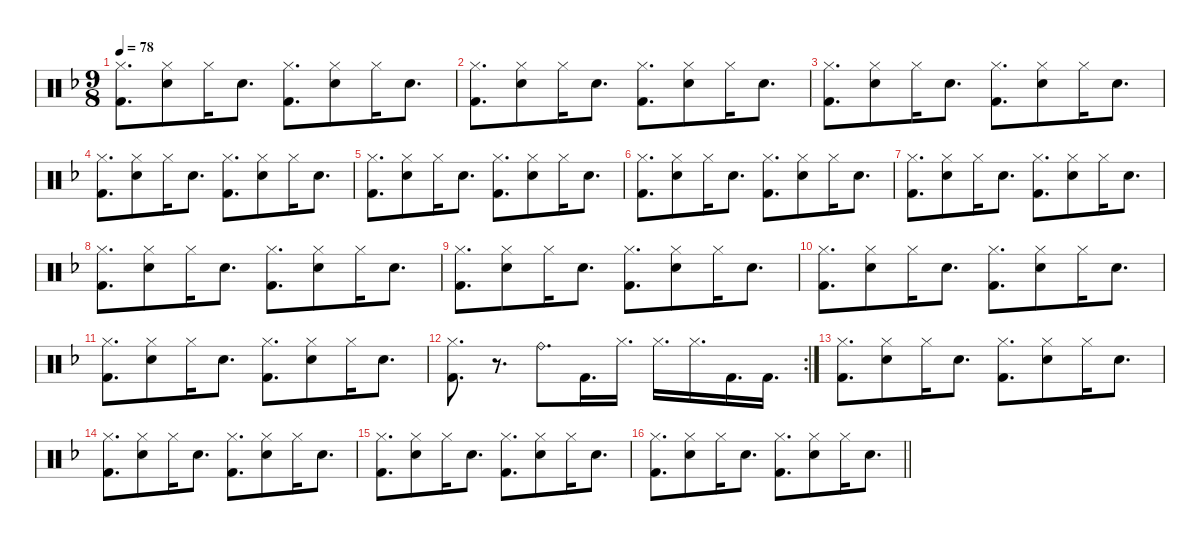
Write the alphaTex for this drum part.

\defaultSystemsLayout 4
\hideDynamics
\bracketExtendMode nobrackets
\singleTrackTrackNamePolicy hidden
\multiTrackTrackNamePolicy hidden
\firstSystemTrackNameMode fullname
\firstSystemTrackNameOrientation horizontal
\otherSystemsTrackNameOrientation horizontal
\track ("Percussion" "drm.") {instrument percussion}
\staff {score}
\articulation defaults
\ts (9 8)
\tempo 78
\clef neutral
\ks f
("Hi-Hat (closed)"{acc forcenatural} "Kick (hit) 2"{acc forcenatural}).8{d dy ff beam Down} ("Hi-Hat (closed)"{acc forcenatural} "Snare (hit) 2"{acc forcenatural}).8{dy mf beam Down} "Hi-Hat (closed)"{acc forcenatural}.16{dy f beam Down beam merge} "Snare (hit) 2"{acc forcenatural}.8{d dy mf beam Down beam split} ("Hi-Hat (closed)"{acc forcenatural} "Kick (hit) 2"{acc forcenatural}).8{d dy ff beam Down beam merge} ("Hi-Hat (closed)"{acc forcenatural} "Snare (hit) 2"{acc forcenatural}).8{dy mf beam Down} "Hi-Hat (closed)"{acc forcenatural}.16{dy f beam Down} "Snare (hit) 2"{acc forcenatural}.8{d dy mf beam Down} |
("Hi-Hat (closed)"{acc forcenatural} "Kick (hit) 2"{acc forcenatural}).8{d dy ff beam Down} ("Hi-Hat (closed)"{acc forcenatural} "Snare (hit) 2"{acc forcenatural}).8{dy mf beam Down} "Hi-Hat (closed)"{acc forcenatural}.16{dy f beam Down beam merge} "Snare (hit) 2"{acc forcenatural}.8{d dy mf beam Down beam split} ("Hi-Hat (closed)"{acc forcenatural} "Kick (hit) 2"{acc forcenatural}).8{d dy ff beam Down beam merge} ("Hi-Hat (closed)"{acc forcenatural} "Snare (hit) 2"{acc forcenatural}).8{dy mf beam Down} "Hi-Hat (closed)"{acc forcenatural}.16{dy f beam Down} "Snare (hit) 2"{acc forcenatural}.8{d dy mf beam Down} |
("Hi-Hat (closed)"{acc forcenatural} "Kick (hit) 2"{acc forcenatural}).8{d dy ff beam Down} ("Hi-Hat (closed)"{acc forcenatural} "Snare (hit) 2"{acc forcenatural}).8{dy mf beam Down} "Hi-Hat (closed)"{acc forcenatural}.16{dy f beam Down beam merge} "Snare (hit) 2"{acc forcenatural}.8{d dy mf beam Down beam split} ("Hi-Hat (closed)"{acc forcenatural} "Kick (hit) 2"{acc forcenatural}).8{d dy ff beam Down beam merge} ("Hi-Hat (closed)"{acc forcenatural} "Snare (hit) 2"{acc forcenatural}).8{dy mf beam Down} "Hi-Hat (closed)"{acc forcenatural}.16{dy f beam Down} "Snare (hit) 2"{acc forcenatural}.8{d dy mf beam Down} |
("Hi-Hat (closed)"{acc forcenatural} "Kick (hit) 2"{acc forcenatural}).8{d dy ff beam Down} ("Hi-Hat (closed)"{acc forcenatural} "Snare (hit) 2"{acc forcenatural}).8{dy mf beam Down} "Hi-Hat (closed)"{acc forcenatural}.16{dy f beam Down beam merge} "Snare (hit) 2"{acc forcenatural}.8{d dy mf beam Down beam split} ("Hi-Hat (closed)"{acc forcenatural} "Kick (hit) 2"{acc forcenatural}).8{d dy ff beam Down beam merge} ("Hi-Hat (closed)"{acc forcenatural} "Snare (hit) 2"{acc forcenatural}).8{dy mf beam Down} "Hi-Hat (closed)"{acc forcenatural}.16{dy f beam Down} "Snare (hit) 2"{acc forcenatural}.8{d dy mf beam Down} |
("Hi-Hat (closed)"{acc forcenatural} "Kick (hit) 2"{acc forcenatural}).8{d dy ff beam Down} ("Hi-Hat (closed)"{acc forcenatural} "Snare (hit) 2"{acc forcenatural}).8{dy mf beam Down} "Hi-Hat (closed)"{acc forcenatural}.16{dy f beam Down beam merge} "Snare (hit) 2"{acc forcenatural}.8{d dy mf beam Down beam split} ("Hi-Hat (closed)"{acc forcenatural} "Kick (hit) 2"{acc forcenatural}).8{d dy ff beam Down beam merge} ("Hi-Hat (closed)"{acc forcenatural} "Snare (hit) 2"{acc forcenatural}).8{dy mf beam Down} "Hi-Hat (closed)"{acc forcenatural}.16{dy f beam Down} "Snare (hit) 2"{acc forcenatural}.8{d dy mf beam Down} |
("Hi-Hat (closed)"{acc forcenatural} "Kick (hit) 2"{acc forcenatural}).8{d dy ff beam Down} ("Hi-Hat (closed)"{acc forcenatural} "Snare (hit) 2"{acc forcenatural}).8{dy mf beam Down} "Hi-Hat (closed)"{acc forcenatural}.16{dy f beam Down beam merge} "Snare (hit) 2"{acc forcenatural}.8{d dy mf beam Down beam split} ("Hi-Hat (closed)"{acc forcenatural} "Kick (hit) 2"{acc forcenatural}).8{d dy ff beam Down beam merge} ("Hi-Hat (closed)"{acc forcenatural} "Snare (hit) 2"{acc forcenatural}).8{dy mf beam Down} "Hi-Hat (closed)"{acc forcenatural}.16{dy f beam Down} "Snare (hit) 2"{acc forcenatural}.8{d dy mf beam Down} |
("Hi-Hat (closed)"{acc forcenatural} "Kick (hit) 2"{acc forcenatural}).8{d dy ff beam Down} ("Hi-Hat (closed)"{acc forcenatural} "Snare (hit) 2"{acc forcenatural}).8{dy mf beam Down} "Hi-Hat (closed)"{acc forcenatural}.16{dy f beam Down beam merge} "Snare (hit) 2"{acc forcenatural}.8{d dy mf beam Down beam split} ("Hi-Hat (closed)"{acc forcenatural} "Kick (hit) 2"{acc forcenatural}).8{d dy ff beam Down beam merge} ("Hi-Hat (closed)"{acc forcenatural} "Snare (hit) 2"{acc forcenatural}).8{dy mf beam Down} "Hi-Hat (closed)"{acc forcenatural}.16{dy f beam Down} "Snare (hit) 2"{acc forcenatural}.8{d dy mf beam Down} |
("Hi-Hat (closed)"{acc forcenatural} "Kick (hit) 2"{acc forcenatural}).8{d dy ff beam Down} ("Hi-Hat (closed)"{acc forcenatural} "Snare (hit) 2"{acc forcenatural}).8{dy mf beam Down} "Hi-Hat (closed)"{acc forcenatural}.16{dy f beam Down beam merge} "Snare (hit) 2"{acc forcenatural}.8{d dy mf beam Down beam split} ("Hi-Hat (closed)"{acc forcenatural} "Kick (hit) 2"{acc forcenatural}).8{d dy ff beam Down beam merge} ("Hi-Hat (closed)"{acc forcenatural} "Snare (hit) 2"{acc forcenatural}).8{dy mf beam Down} "Hi-Hat (closed)"{acc forcenatural}.16{dy f beam Down} "Snare (hit) 2"{acc forcenatural}.8{d dy mf beam Down} |
("Hi-Hat (closed)"{acc forcenatural} "Kick (hit) 2"{acc forcenatural}).8{d dy ff beam Down} ("Hi-Hat (closed)"{acc forcenatural} "Snare (hit) 2"{acc forcenatural}).8{dy mf beam Down} "Hi-Hat (closed)"{acc forcenatural}.16{dy f beam Down beam merge} "Snare (hit) 2"{acc forcenatural}.8{d dy mf beam Down beam split} ("Hi-Hat (closed)"{acc forcenatural} "Kick (hit) 2"{acc forcenatural}).8{d dy ff beam Down beam merge} ("Hi-Hat (closed)"{acc forcenatural} "Snare (hit) 2"{acc forcenatural}).8{dy mf beam Down} "Hi-Hat (closed)"{acc forcenatural}.16{dy f beam Down} "Snare (hit) 2"{acc forcenatural}.8{d dy mf beam Down} |
("Hi-Hat (closed)"{acc forcenatural} "Kick (hit) 2"{acc forcenatural}).8{d dy ff beam Down} ("Hi-Hat (closed)"{acc forcenatural} "Snare (hit) 2"{acc forcenatural}).8{dy mf beam Down} "Hi-Hat (closed)"{acc forcenatural}.16{dy f beam Down beam merge} "Snare (hit) 2"{acc forcenatural}.8{d dy mf beam Down beam split} ("Hi-Hat (closed)"{acc forcenatural} "Kick (hit) 2"{acc forcenatural}).8{d dy ff beam Down beam merge} ("Hi-Hat (closed)"{acc forcenatural} "Snare (hit) 2"{acc forcenatural}).8{dy mf beam Down} "Hi-Hat (closed)"{acc forcenatural}.16{dy f beam Down} "Snare (hit) 2"{acc forcenatural}.8{d dy mf beam Down} |
("Hi-Hat (closed)"{acc forcenatural} "Kick (hit) 2"{acc forcenatural}).8{d dy ff beam Down} ("Hi-Hat (closed)"{acc forcenatural} "Snare (hit) 2"{acc forcenatural}).8{dy mf beam Down} "Hi-Hat (closed)"{acc forcenatural}.16{dy f beam Down beam merge} "Snare (hit) 2"{acc forcenatural}.8{d dy mf beam Down beam split} ("Hi-Hat (closed)"{acc forcenatural} "Kick (hit) 2"{acc forcenatural}).8{d dy ff beam Down beam merge} ("Hi-Hat (closed)"{acc forcenatural} "Snare (hit) 2"{acc forcenatural}).8{dy mf beam Down} "Hi-Hat (closed)"{acc forcenatural}.16{dy f beam Down} "Snare (hit) 2"{acc forcenatural}.8{d dy mf beam Down} |
\rc 2
("Hi-Hat (closed)"{acc forcenatural} "Kick (hit) 2"{acc forcenatural}).8{d dy f beam Down} r.8{d beam Down} "Ride (bell)"{acc forcenatural}.8{d beam Down} "Kick (hit) 2"{acc forcenatural}.16{d beam Down} "Hi-Hat (closed)"{acc forcenatural}.16{d beam Down} "Hi-Hat (closed)"{acc forcenatural}.16{d beam Down} "Hi-Hat (closed)"{acc forcenatural}.16{d beam Down} "Kick (hit) 2"{acc forcenatural}.16{d beam Down} "Kick (hit) 2"{acc forcenatural}.16{d beam Down} |
("Hi-Hat (closed)"{acc forcenatural} "Kick (hit) 2"{acc forcenatural}).8{d dy ff beam Down} ("Hi-Hat (closed)"{acc forcenatural} "Snare (hit) 2"{acc forcenatural}).8{dy mf beam Down} "Hi-Hat (closed)"{acc forcenatural}.16{dy f beam Down beam merge} "Snare (hit) 2"{acc forcenatural}.8{d dy mf beam Down beam split} ("Hi-Hat (closed)"{acc forcenatural} "Kick (hit) 2"{acc forcenatural}).8{d dy ff beam Down beam merge} ("Hi-Hat (closed)"{acc forcenatural} "Snare (hit) 2"{acc forcenatural}).8{dy mf beam Down} "Hi-Hat (closed)"{acc forcenatural}.16{dy f beam Down} "Snare (hit) 2"{acc forcenatural}.8{d dy mf beam Down} |
("Hi-Hat (closed)"{acc forcenatural} "Kick (hit) 2"{acc forcenatural}).8{d dy ff beam Down} ("Hi-Hat (closed)"{acc forcenatural} "Snare (hit) 2"{acc forcenatural}).8{dy mf beam Down} "Hi-Hat (closed)"{acc forcenatural}.16{dy f beam Down beam merge} "Snare (hit) 2"{acc forcenatural}.8{d dy mf beam Down beam split} ("Hi-Hat (closed)"{acc forcenatural} "Kick (hit) 2"{acc forcenatural}).8{d dy ff beam Down beam merge} ("Hi-Hat (closed)"{acc forcenatural} "Snare (hit) 2"{acc forcenatural}).8{dy mf beam Down} "Hi-Hat (closed)"{acc forcenatural}.16{dy f beam Down} "Snare (hit) 2"{acc forcenatural}.8{d dy mf beam Down} |
("Hi-Hat (closed)"{acc forcenatural} "Kick (hit) 2"{acc forcenatural}).8{d dy ff beam Down} ("Hi-Hat (closed)"{acc forcenatural} "Snare (hit) 2"{acc forcenatural}).8{dy mf beam Down} "Hi-Hat (closed)"{acc forcenatural}.16{dy f beam Down beam merge} "Snare (hit) 2"{acc forcenatural}.8{d dy mf beam Down beam split} ("Hi-Hat (closed)"{acc forcenatural} "Kick (hit) 2"{acc forcenatural}).8{d dy ff beam Down beam merge} ("Hi-Hat (closed)"{acc forcenatural} "Snare (hit) 2"{acc forcenatural}).8{dy mf beam Down} "Hi-Hat (closed)"{acc forcenatural}.16{dy f beam Down} "Snare (hit) 2"{acc forcenatural}.8{d dy mf beam Down} |
\barLineRight lightlight
("Hi-Hat (closed)"{acc forcenatural} "Kick (hit) 2"{acc forcenatural}).8{d dy ff beam Down} ("Hi-Hat (closed)"{acc forcenatural} "Snare (hit) 2"{acc forcenatural}).8{dy mf beam Down} "Hi-Hat (closed)"{acc forcenatural}.16{dy f beam Down beam merge} "Snare (hit) 2"{acc forcenatural}.8{d dy mf beam Down beam split} ("Hi-Hat (closed)"{acc forcenatural} "Kick (hit) 2"{acc forcenatural}).8{d dy ff beam Down beam merge} ("Hi-Hat (closed)"{acc forcenatural} "Snare (hit) 2"{acc forcenatural}).8{dy mf beam Down} "Hi-Hat (closed)"{acc forcenatural}.16{dy f beam Down} "Snare (hit) 2"{acc forcenatural}.8{d dy mf beam Down}
